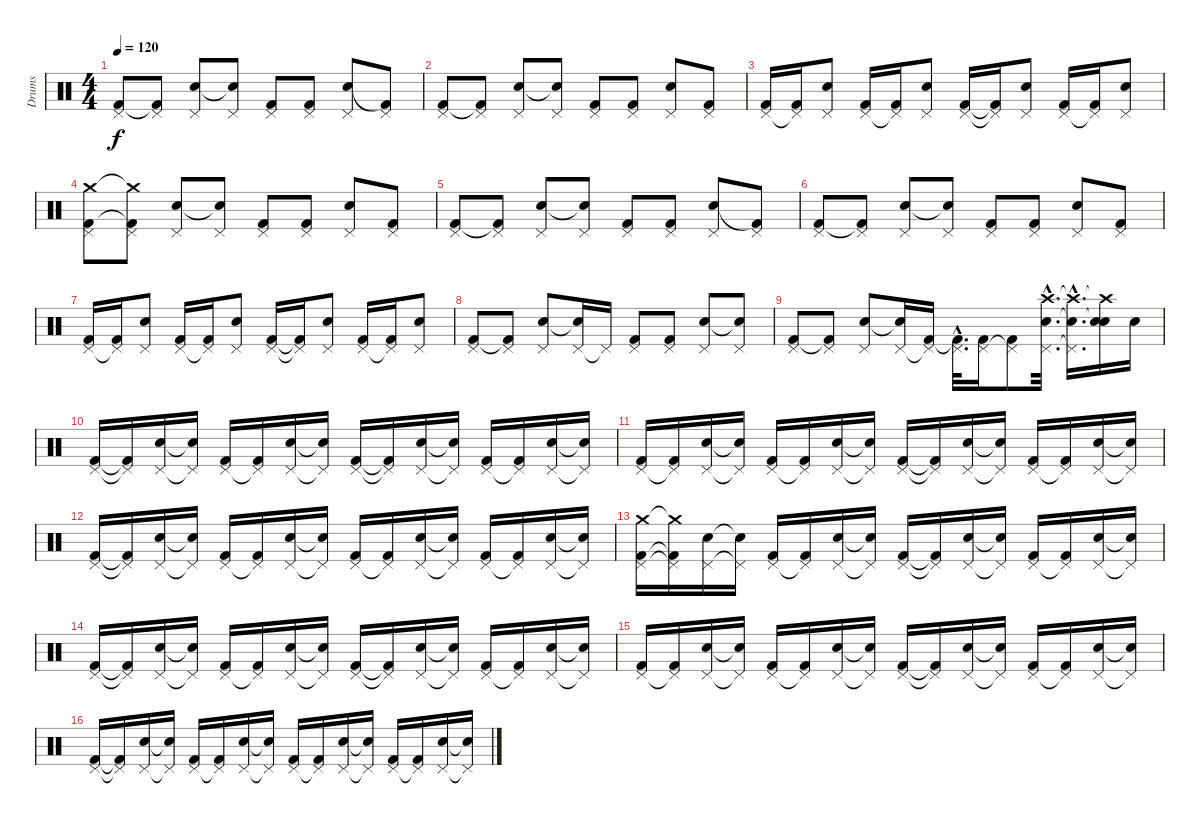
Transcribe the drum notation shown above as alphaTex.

\track ("Drums" "Drums") {instrument percussion}
\staff {score}
\articulation defaults
\ts (4 4)
\tempo 120
\clef neutral
\ks c
("Pedal Hi-Hat (hit)" "Kick (hit) 2").8{dy f} ("Pedal Hi-Hat (hit)" "Kick (hit) 2"{t}).8 ("Pedal Hi-Hat (hit)" "Snare (hit) 2").8 ("Pedal Hi-Hat (hit)" "Snare (hit) 2"{t}).8 ("Pedal Hi-Hat (hit)" "Kick (hit) 2").8 ("Pedal Hi-Hat (hit)" "Kick (hit) 2").8 ("Pedal Hi-Hat (hit)" "Snare (hit) 2").8 ("Pedal Hi-Hat (hit)" "Kick (hit) 2"{t}).8 |
("Pedal Hi-Hat (hit)" "Kick (hit) 2").8 ("Pedal Hi-Hat (hit)" "Kick (hit) 2"{t}).8 ("Pedal Hi-Hat (hit)" "Snare (hit) 2").8 ("Pedal Hi-Hat (hit)" "Snare (hit) 2"{t}).8 ("Pedal Hi-Hat (hit)" "Kick (hit) 2").8 ("Pedal Hi-Hat (hit)" "Kick (hit) 2").8 ("Pedal Hi-Hat (hit)" "Snare (hit) 2").8 ("Pedal Hi-Hat (hit)" "Kick (hit) 2").8 |
("Pedal Hi-Hat (hit)" "Kick (hit) 2").16 ("Pedal Hi-Hat (hit)"{t} "Kick (hit) 2").16 ("Pedal Hi-Hat (hit)" "Snare (hit) 2").8 ("Pedal Hi-Hat (hit)" "Kick (hit) 2").16 ("Pedal Hi-Hat (hit)"{t} "Kick (hit) 2").16 ("Pedal Hi-Hat (hit)" "Snare (hit) 2").8 ("Pedal Hi-Hat (hit)" "Kick (hit) 2").16 ("Pedal Hi-Hat (hit)"{t} "Kick (hit) 2"{t}).16 ("Pedal Hi-Hat (hit)" "Snare (hit) 2").8 ("Pedal Hi-Hat (hit)" "Kick (hit) 2").16 ("Pedal Hi-Hat (hit)"{t} "Kick (hit) 2").16 ("Pedal Hi-Hat (hit)" "Snare (hit) 2").8 |
("Pedal Hi-Hat (hit)" "Crash medium (hit)" "Kick (hit) 2").8 ("Pedal Hi-Hat (hit)" "Crash medium (hit)"{t} "Kick (hit) 2"{t}).8 ("Pedal Hi-Hat (hit)" "Snare (hit) 2").8 ("Pedal Hi-Hat (hit)" "Snare (hit) 2"{t}).8 ("Pedal Hi-Hat (hit)" "Kick (hit) 2").8 ("Pedal Hi-Hat (hit)" "Kick (hit) 2").8 ("Pedal Hi-Hat (hit)" "Snare (hit) 2").8 ("Pedal Hi-Hat (hit)" "Kick (hit) 2").8 |
("Pedal Hi-Hat (hit)" "Kick (hit) 2").8 ("Pedal Hi-Hat (hit)" "Kick (hit) 2"{t}).8 ("Pedal Hi-Hat (hit)" "Snare (hit) 2").8 ("Pedal Hi-Hat (hit)" "Snare (hit) 2"{t}).8 ("Pedal Hi-Hat (hit)" "Kick (hit) 2").8 ("Pedal Hi-Hat (hit)" "Kick (hit) 2").8 ("Pedal Hi-Hat (hit)" "Snare (hit) 2").8 ("Pedal Hi-Hat (hit)" "Kick (hit) 2"{t}).8 |
("Pedal Hi-Hat (hit)" "Kick (hit) 2").8 ("Pedal Hi-Hat (hit)" "Kick (hit) 2"{t}).8 ("Pedal Hi-Hat (hit)" "Snare (hit) 2").8 ("Pedal Hi-Hat (hit)" "Snare (hit) 2"{t}).8 ("Pedal Hi-Hat (hit)" "Kick (hit) 2").8 ("Pedal Hi-Hat (hit)" "Kick (hit) 2").8 ("Pedal Hi-Hat (hit)" "Snare (hit) 2").8 ("Pedal Hi-Hat (hit)" "Kick (hit) 2").8 |
("Pedal Hi-Hat (hit)" "Kick (hit) 2").16 ("Pedal Hi-Hat (hit)"{t} "Kick (hit) 2").16 ("Pedal Hi-Hat (hit)" "Snare (hit) 2").8 ("Pedal Hi-Hat (hit)" "Kick (hit) 2").16 ("Pedal Hi-Hat (hit)"{t} "Kick (hit) 2").16 ("Pedal Hi-Hat (hit)" "Snare (hit) 2").8 ("Pedal Hi-Hat (hit)" "Kick (hit) 2").16 ("Pedal Hi-Hat (hit)"{t} "Kick (hit) 2"{t}).16 ("Pedal Hi-Hat (hit)" "Snare (hit) 2").8 ("Pedal Hi-Hat (hit)" "Kick (hit) 2").16 ("Pedal Hi-Hat (hit)"{t} "Kick (hit) 2").16 ("Pedal Hi-Hat (hit)" "Snare (hit) 2").8 |
("Pedal Hi-Hat (hit)" "Kick (hit) 2").8 ("Pedal Hi-Hat (hit)" "Kick (hit) 2"{t}).8 ("Pedal Hi-Hat (hit)" "Snare (hit) 2").8 ("Pedal Hi-Hat (hit)" "Snare (hit) 2"{t}).16 "Pedal Hi-Hat (hit)"{t}.16 ("Pedal Hi-Hat (hit)" "Kick (hit) 2").8 ("Pedal Hi-Hat (hit)" "Kick (hit) 2").8 ("Pedal Hi-Hat (hit)" "Snare (hit) 2").8 ("Pedal Hi-Hat (hit)" "Snare (hit) 2"{t}).8 |
("Pedal Hi-Hat (hit)" "Kick (hit) 2").8 ("Pedal Hi-Hat (hit)" "Kick (hit) 2"{t}).8 ("Pedal Hi-Hat (hit)" "Snare (hit) 2").8 ("Pedal Hi-Hat (hit)" "Snare (hit) 2"{t}).16 ("Pedal Hi-Hat (hit)"{t} "Kick (hit) 2").16 ("Pedal Hi-Hat (hit)"{hac} "Kick (hit) 2"{hac t}).32{d} ("Pedal Hi-Hat (hit)" "Kick (hit) 2").16 ("Pedal Hi-Hat (hit)"{t} "Kick (hit) 2").8 ("Pedal Hi-Hat (hit)"{hac} "Crash high (hit)"{hac} "Snare (hit) 2"{hac}).32{d} ("Pedal Hi-Hat (hit)"{hac t} "Crash high (hit)"{hac t} "Snare (hit) 2"{hac t}).16{d} ("Snare (hit) 2" "Crash high (hit)"{t} "Snare (hit) 2"{t}).16 "Snare (hit) 2".16 |
("Pedal Hi-Hat (hit)" "Kick (hit) 2").16 ("Pedal Hi-Hat (hit)"{t} "Kick (hit) 2"{t}).16 ("Pedal Hi-Hat (hit)" "Snare (hit) 2").16 ("Pedal Hi-Hat (hit)"{t} "Snare (hit) 2"{t}).16 ("Pedal Hi-Hat (hit)" "Kick (hit) 2").16 ("Pedal Hi-Hat (hit)"{t} "Kick (hit) 2").16 ("Pedal Hi-Hat (hit)" "Snare (hit) 2").16 ("Pedal Hi-Hat (hit)"{t} "Snare (hit) 2"{t}).16 ("Pedal Hi-Hat (hit)" "Kick (hit) 2").16 ("Pedal Hi-Hat (hit)"{t} "Kick (hit) 2"{t}).16 ("Pedal Hi-Hat (hit)" "Snare (hit) 2").16 ("Pedal Hi-Hat (hit)"{t} "Snare (hit) 2"{t}).16 ("Pedal Hi-Hat (hit)" "Kick (hit) 2").16 ("Pedal Hi-Hat (hit)"{t} "Kick (hit) 2").16 ("Pedal Hi-Hat (hit)" "Snare (hit) 2").16 ("Pedal Hi-Hat (hit)"{t} "Snare (hit) 2"{t}).16 |
("Pedal Hi-Hat (hit)" "Kick (hit) 2").16 ("Pedal Hi-Hat (hit)"{t} "Kick (hit) 2").16 ("Pedal Hi-Hat (hit)" "Snare (hit) 2").16 ("Pedal Hi-Hat (hit)"{t} "Snare (hit) 2"{t}).16 ("Pedal Hi-Hat (hit)" "Kick (hit) 2").16 ("Pedal Hi-Hat (hit)"{t} "Kick (hit) 2").16 ("Pedal Hi-Hat (hit)" "Snare (hit) 2").16 ("Pedal Hi-Hat (hit)"{t} "Snare (hit) 2"{t}).16 ("Pedal Hi-Hat (hit)" "Kick (hit) 2").16 ("Pedal Hi-Hat (hit)"{t} "Kick (hit) 2"{t}).16 ("Pedal Hi-Hat (hit)" "Snare (hit) 2").16 ("Pedal Hi-Hat (hit)"{t} "Snare (hit) 2"{t}).16 ("Pedal Hi-Hat (hit)" "Kick (hit) 2").16 ("Pedal Hi-Hat (hit)"{t} "Kick (hit) 2").16 ("Pedal Hi-Hat (hit)" "Snare (hit) 2").16 ("Pedal Hi-Hat (hit)"{t} "Snare (hit) 2"{t}).16 |
("Pedal Hi-Hat (hit)" "Kick (hit) 2").16 ("Pedal Hi-Hat (hit)"{t} "Kick (hit) 2"{t}).16 ("Pedal Hi-Hat (hit)" "Snare (hit) 2").16 ("Pedal Hi-Hat (hit)"{t} "Snare (hit) 2"{t}).16 ("Pedal Hi-Hat (hit)" "Kick (hit) 2").16 ("Pedal Hi-Hat (hit)"{t} "Kick (hit) 2").16 ("Pedal Hi-Hat (hit)" "Snare (hit) 2").16 ("Pedal Hi-Hat (hit)"{t} "Snare (hit) 2"{t}).16 ("Pedal Hi-Hat (hit)" "Kick (hit) 2").16 ("Pedal Hi-Hat (hit)"{t} "Kick (hit) 2").16 ("Pedal Hi-Hat (hit)" "Snare (hit) 2").16 ("Pedal Hi-Hat (hit)"{t} "Snare (hit) 2"{t}).16 ("Pedal Hi-Hat (hit)" "Kick (hit) 2").16 ("Pedal Hi-Hat (hit)"{t} "Kick (hit) 2").16 ("Pedal Hi-Hat (hit)" "Snare (hit) 2").16 ("Pedal Hi-Hat (hit)"{t} "Snare (hit) 2"{t}).16 |
("Pedal Hi-Hat (hit)" "Crash medium (hit)" "Kick (hit) 2").16 ("Pedal Hi-Hat (hit)"{t} "Crash medium (hit)"{t} "Kick (hit) 2"{t}).16 ("Pedal Hi-Hat (hit)" "Snare (hit) 2").16 ("Pedal Hi-Hat (hit)"{t} "Snare (hit) 2"{t}).16 ("Pedal Hi-Hat (hit)" "Kick (hit) 2").16 ("Pedal Hi-Hat (hit)"{t} "Kick (hit) 2").16 ("Pedal Hi-Hat (hit)" "Snare (hit) 2").16 ("Pedal Hi-Hat (hit)"{t} "Snare (hit) 2"{t}).16 ("Pedal Hi-Hat (hit)" "Kick (hit) 2").16 ("Pedal Hi-Hat (hit)"{t} "Kick (hit) 2"{t}).16 ("Pedal Hi-Hat (hit)" "Snare (hit) 2").16 ("Pedal Hi-Hat (hit)"{t} "Snare (hit) 2"{t}).16 ("Pedal Hi-Hat (hit)" "Kick (hit) 2").16 ("Pedal Hi-Hat (hit)"{t} "Kick (hit) 2").16 ("Pedal Hi-Hat (hit)" "Snare (hit) 2").16 ("Pedal Hi-Hat (hit)"{t} "Snare (hit) 2"{t}).16 |
("Pedal Hi-Hat (hit)" "Kick (hit) 2").16 ("Pedal Hi-Hat (hit)"{t} "Kick (hit) 2"{t}).16 ("Pedal Hi-Hat (hit)" "Snare (hit) 2").16 ("Pedal Hi-Hat (hit)"{t} "Snare (hit) 2"{t}).16 ("Pedal Hi-Hat (hit)" "Kick (hit) 2").16 ("Pedal Hi-Hat (hit)"{t} "Kick (hit) 2").16 ("Pedal Hi-Hat (hit)" "Snare (hit) 2").16 ("Pedal Hi-Hat (hit)"{t} "Snare (hit) 2"{t}).16 ("Pedal Hi-Hat (hit)" "Kick (hit) 2").16 ("Pedal Hi-Hat (hit)"{t} "Kick (hit) 2"{t}).16 ("Pedal Hi-Hat (hit)" "Snare (hit) 2").16 ("Pedal Hi-Hat (hit)"{t} "Snare (hit) 2"{t}).16 ("Pedal Hi-Hat (hit)" "Kick (hit) 2").16 ("Pedal Hi-Hat (hit)"{t} "Kick (hit) 2").16 ("Pedal Hi-Hat (hit)" "Snare (hit) 2").16 ("Pedal Hi-Hat (hit)"{t} "Snare (hit) 2"{t}).16 |
("Pedal Hi-Hat (hit)" "Kick (hit) 2").16 ("Pedal Hi-Hat (hit)"{t} "Kick (hit) 2").16 ("Pedal Hi-Hat (hit)" "Snare (hit) 2").16 ("Pedal Hi-Hat (hit)"{t} "Snare (hit) 2"{t}).16 ("Pedal Hi-Hat (hit)" "Kick (hit) 2").16 ("Pedal Hi-Hat (hit)"{t} "Kick (hit) 2").16 ("Pedal Hi-Hat (hit)" "Snare (hit) 2").16 ("Pedal Hi-Hat (hit)"{t} "Snare (hit) 2"{t}).16 ("Pedal Hi-Hat (hit)" "Kick (hit) 2").16 ("Pedal Hi-Hat (hit)"{t} "Kick (hit) 2"{t}).16 ("Pedal Hi-Hat (hit)" "Snare (hit) 2").16 ("Pedal Hi-Hat (hit)"{t} "Snare (hit) 2"{t}).16 ("Pedal Hi-Hat (hit)" "Kick (hit) 2").16 ("Pedal Hi-Hat (hit)"{t} "Kick (hit) 2").16 ("Pedal Hi-Hat (hit)" "Snare (hit) 2").16 ("Pedal Hi-Hat (hit)"{t} "Snare (hit) 2"{t}).16 |
("Pedal Hi-Hat (hit)" "Kick (hit) 2").16 ("Pedal Hi-Hat (hit)"{t} "Kick (hit) 2"{t}).16 ("Pedal Hi-Hat (hit)" "Snare (hit) 2").16 ("Pedal Hi-Hat (hit)"{t} "Snare (hit) 2"{t}).16 ("Pedal Hi-Hat (hit)" "Kick (hit) 2").16 ("Pedal Hi-Hat (hit)"{t} "Kick (hit) 2").16 ("Pedal Hi-Hat (hit)" "Snare (hit) 2").16 ("Pedal Hi-Hat (hit)"{t} "Snare (hit) 2"{t}).16 ("Pedal Hi-Hat (hit)" "Kick (hit) 2").16 ("Pedal Hi-Hat (hit)"{t} "Kick (hit) 2").16 ("Pedal Hi-Hat (hit)" "Snare (hit) 2").16 ("Pedal Hi-Hat (hit)"{t} "Snare (hit) 2"{t}).16 ("Pedal Hi-Hat (hit)" "Kick (hit) 2").16 ("Pedal Hi-Hat (hit)"{t} "Kick (hit) 2").16 ("Pedal Hi-Hat (hit)" "Snare (hit) 2").16 ("Pedal Hi-Hat (hit)"{t} "Snare (hit) 2"{t}).16
